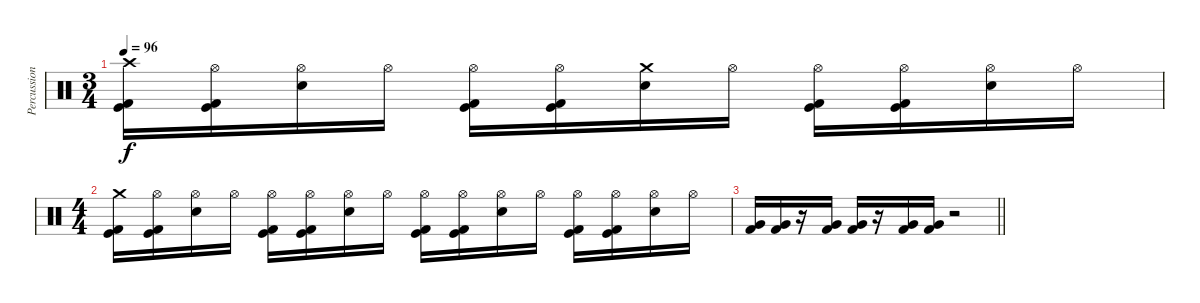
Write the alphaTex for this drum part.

\track ("Percussion" "Percussion") {instrument percussion}
\staff {score}
\articulation defaults
\ts (3 4)
\tempo 96
\clef neutral
\ks c
("Crash high (hit)" "Kick (hit)" "Kick (hit) 2").16{dy f} ("Hi-Hat (open)" "Kick (hit)" "Kick (hit) 2").16 ("Hi-Hat (open)" "Electric Snare (hit)").16 "Hi-Hat (open)".16 ("Hi-Hat (open)" "Kick (hit)" "Kick (hit) 2").16 ("Hi-Hat (open)" "Kick (hit)" "Kick (hit) 2").16 ("Crash medium (hit)" "Electric Snare (hit)").16 "Hi-Hat (open)".16 ("Hi-Hat (open)" "Kick (hit)" "Kick (hit) 2").16 ("Hi-Hat (open)" "Kick (hit)" "Kick (hit) 2").16 ("Hi-Hat (open)" "Electric Snare (hit)").16 "Hi-Hat (open)".16 |
\ts (4 4)
("Crash medium (hit)" "Kick (hit)" "Kick (hit) 2").16 ("Hi-Hat (open)" "Kick (hit)" "Kick (hit) 2").16 ("Hi-Hat (open)" "Electric Snare (hit)").16 "Hi-Hat (open)".16 ("Hi-Hat (open)" "Kick (hit)" "Kick (hit) 2").16 ("Hi-Hat (open)" "Kick (hit)" "Kick (hit) 2").16 ("Hi-Hat (open)" "Electric Snare (hit)").16 "Hi-Hat (open)".16 ("Hi-Hat (open)" "Kick (hit)" "Kick (hit) 2").16 ("Hi-Hat (open)" "Kick (hit)" "Kick (hit) 2").16 ("Hi-Hat (open)" "Electric Snare (hit)").16 "Hi-Hat (open)".16 ("Hi-Hat (open)" "Kick (hit)" "Kick (hit) 2").16 ("Hi-Hat (open)" "Kick (hit)" "Kick (hit) 2").16 ("Hi-Hat (open)" "Electric Snare (hit)").16 "Hi-Hat (open)".16 |
\barLineRight lightlight
("Kick (hit) 2" "Very Low Tom (hit)").16 ("Kick (hit) 2" "Very Low Tom (hit)").16 r.16 ("Kick (hit) 2" "Very Low Tom (hit)").16 ("Kick (hit) 2" "Very Low Tom (hit)").16 r.16 ("Kick (hit) 2" "Very Low Tom (hit)").16 ("Kick (hit) 2" "Very Low Tom (hit)").16 r.2
